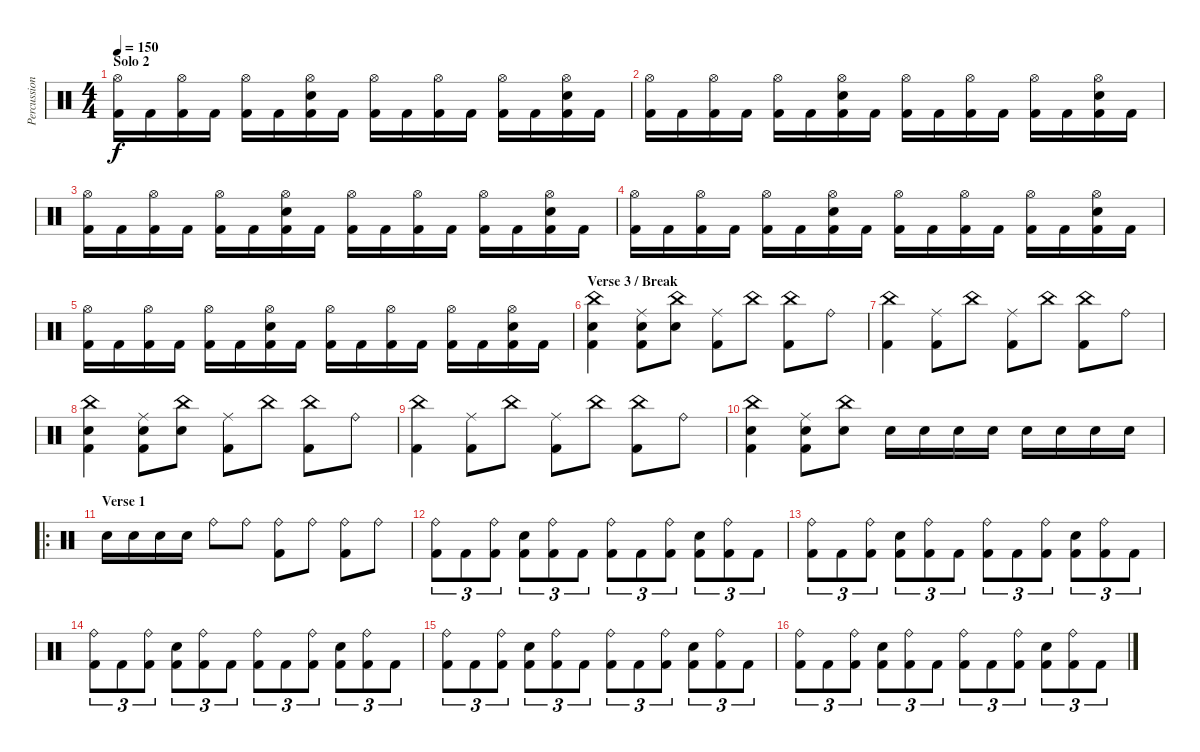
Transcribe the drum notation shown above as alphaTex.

\track ("Percussions" "Percussion") {instrument percussion}
\staff {score}
\articulation defaults
\ts (4 4)
\section ("" "Solo 2")
\tempo 150
\clef neutral
\ks c
("Hi-Hat (open)" "Kick (hit) 2").16{dy f} "Kick (hit) 2".16 ("Hi-Hat (open)" "Kick (hit) 2").16 "Kick (hit) 2".16 ("Hi-Hat (open)" "Kick (hit) 2").16 "Kick (hit) 2".16 ("Hi-Hat (open)" "Electric Snare (hit)" "Kick (hit) 2").16 "Kick (hit) 2".16 ("Hi-Hat (open)" "Kick (hit) 2").16 "Kick (hit) 2".16 ("Hi-Hat (open)" "Kick (hit) 2").16 "Kick (hit) 2".16 ("Hi-Hat (open)" "Kick (hit) 2").16 "Kick (hit) 2".16 ("Hi-Hat (open)" "Electric Snare (hit)" "Kick (hit) 2").16 "Kick (hit) 2".16 |
("Hi-Hat (open)" "Kick (hit) 2").16 "Kick (hit) 2".16 ("Hi-Hat (open)" "Kick (hit) 2").16 "Kick (hit) 2".16 ("Hi-Hat (open)" "Kick (hit) 2").16 "Kick (hit) 2".16 ("Hi-Hat (open)" "Electric Snare (hit)" "Kick (hit) 2").16 "Kick (hit) 2".16 ("Hi-Hat (open)" "Kick (hit) 2").16 "Kick (hit) 2".16 ("Hi-Hat (open)" "Kick (hit) 2").16 "Kick (hit) 2".16 ("Hi-Hat (open)" "Kick (hit) 2").16 "Kick (hit) 2".16 ("Hi-Hat (open)" "Electric Snare (hit)" "Kick (hit) 2").16 "Kick (hit) 2".16 |
("Hi-Hat (open)" "Kick (hit) 2").16 "Kick (hit) 2".16 ("Hi-Hat (open)" "Kick (hit) 2").16 "Kick (hit) 2".16 ("Hi-Hat (open)" "Kick (hit) 2").16 "Kick (hit) 2".16 ("Hi-Hat (open)" "Electric Snare (hit)" "Kick (hit) 2").16 "Kick (hit) 2".16 ("Hi-Hat (open)" "Kick (hit) 2").16 "Kick (hit) 2".16 ("Hi-Hat (open)" "Kick (hit) 2").16 "Kick (hit) 2".16 ("Hi-Hat (open)" "Kick (hit) 2").16 "Kick (hit) 2".16 ("Hi-Hat (open)" "Electric Snare (hit)" "Kick (hit) 2").16 "Kick (hit) 2".16 |
("Hi-Hat (open)" "Kick (hit) 2").16 "Kick (hit) 2".16 ("Hi-Hat (open)" "Kick (hit) 2").16 "Kick (hit) 2".16 ("Hi-Hat (open)" "Kick (hit) 2").16 "Kick (hit) 2".16 ("Hi-Hat (open)" "Electric Snare (hit)" "Kick (hit) 2").16 "Kick (hit) 2".16 ("Hi-Hat (open)" "Kick (hit) 2").16 "Kick (hit) 2".16 ("Hi-Hat (open)" "Kick (hit) 2").16 "Kick (hit) 2".16 ("Hi-Hat (open)" "Kick (hit) 2").16 "Kick (hit) 2".16 ("Hi-Hat (open)" "Electric Snare (hit)" "Kick (hit) 2").16 "Kick (hit) 2".16 |
("Hi-Hat (open)" "Kick (hit) 2").16 "Kick (hit) 2".16 ("Hi-Hat (open)" "Kick (hit) 2").16 "Kick (hit) 2".16 ("Hi-Hat (open)" "Kick (hit) 2").16 "Kick (hit) 2".16 ("Hi-Hat (open)" "Electric Snare (hit)" "Kick (hit) 2").16 "Kick (hit) 2".16 ("Hi-Hat (open)" "Kick (hit) 2").16 "Kick (hit) 2".16 ("Hi-Hat (open)" "Kick (hit) 2").16 "Kick (hit) 2".16 ("Hi-Hat (open)" "Kick (hit) 2").16 "Kick (hit) 2".16 ("Hi-Hat (open)" "Electric Snare (hit)" "Kick (hit) 2").16 "Kick (hit) 2".16 |
\section ("" "Verse 3 / Break")
("China (hit)" "Electric Snare (hit)" "Kick (hit) 2").4 ("Ride (middle)" "Electric Snare (hit)" "Kick (hit) 2").8 ("China (hit)" "Electric Snare (hit)").8 ("Ride (middle)" "Kick (hit) 2").8 "China (hit)".8 ("China (hit)" "Kick (hit) 2").8 "Ride (bell)".8 |
("China (hit)" "Kick (hit) 2").4 ("Ride (middle)" "Kick (hit) 2").8 "China (hit)".8 ("Ride (middle)" "Kick (hit) 2").8 "China (hit)".8 ("China (hit)" "Kick (hit) 2").8 "Ride (bell)".8 |
("China (hit)" "Electric Snare (hit)" "Kick (hit) 2").4 ("Ride (middle)" "Electric Snare (hit)" "Kick (hit) 2").8 ("China (hit)" "Electric Snare (hit)").8 ("Ride (middle)" "Kick (hit) 2").8 "China (hit)".8 ("China (hit)" "Kick (hit) 2").8 "Ride (bell)".8 |
("China (hit)" "Kick (hit) 2").4 ("Ride (middle)" "Kick (hit) 2").8 "China (hit)".8 ("Ride (middle)" "Kick (hit) 2").8 "China (hit)".8 ("China (hit)" "Kick (hit) 2").8 "Ride (bell)".8 |
("China (hit)" "Electric Snare (hit)" "Kick (hit) 2").4 ("Ride (middle)" "Electric Snare (hit)" "Kick (hit) 2").8 ("China (hit)" "Electric Snare (hit)").8 "Electric Snare (hit)".16 "Electric Snare (hit)".16 "Electric Snare (hit)".16 "Electric Snare (hit)".16 "Electric Snare (hit)".16 "Electric Snare (hit)".16 "Electric Snare (hit)".16 "Electric Snare (hit)".16 |
\ro
\section ("" "Verse 1")
"Electric Snare (hit)".16 "Electric Snare (hit)".16 "Electric Snare (hit)".16 "Electric Snare (hit)".16 "Ride (bell)".8 "Ride (bell)".8 ("Ride (bell)" "Kick (hit) 2").8 "Ride (bell)".8 ("Ride (bell)" "Kick (hit) 2").8 "Ride (bell)".8 |
("Ride (bell)" "Kick (hit) 2").8{tu (3 2)} "Kick (hit) 2".8{tu (3 2)} ("Ride (bell)" "Kick (hit) 2").8{tu (3 2)} ("Electric Snare (hit)" "Kick (hit) 2").8{tu (3 2)} ("Ride (bell)" "Kick (hit) 2").8{tu (3 2)} "Kick (hit) 2".8{tu (3 2)} ("Ride (bell)" "Kick (hit) 2").8{tu (3 2)} "Kick (hit) 2".8{tu (3 2)} ("Ride (bell)" "Kick (hit) 2").8{tu (3 2)} ("Electric Snare (hit)" "Kick (hit) 2").8{tu (3 2)} ("Ride (bell)" "Kick (hit) 2").8{tu (3 2)} "Kick (hit) 2".8{tu (3 2)} |
("Ride (bell)" "Kick (hit) 2").8{tu (3 2)} "Kick (hit) 2".8{tu (3 2)} ("Ride (bell)" "Kick (hit) 2").8{tu (3 2)} ("Electric Snare (hit)" "Kick (hit) 2").8{tu (3 2)} ("Ride (bell)" "Kick (hit) 2").8{tu (3 2)} "Kick (hit) 2".8{tu (3 2)} ("Ride (bell)" "Kick (hit) 2").8{tu (3 2)} "Kick (hit) 2".8{tu (3 2)} ("Ride (bell)" "Kick (hit) 2").8{tu (3 2)} ("Electric Snare (hit)" "Kick (hit) 2").8{tu (3 2)} ("Ride (bell)" "Kick (hit) 2").8{tu (3 2)} "Kick (hit) 2".8{tu (3 2)} |
("Ride (bell)" "Kick (hit) 2").8{tu (3 2)} "Kick (hit) 2".8{tu (3 2)} ("Ride (bell)" "Kick (hit) 2").8{tu (3 2)} ("Electric Snare (hit)" "Kick (hit) 2").8{tu (3 2)} ("Ride (bell)" "Kick (hit) 2").8{tu (3 2)} "Kick (hit) 2".8{tu (3 2)} ("Ride (bell)" "Kick (hit) 2").8{tu (3 2)} "Kick (hit) 2".8{tu (3 2)} ("Ride (bell)" "Kick (hit) 2").8{tu (3 2)} ("Electric Snare (hit)" "Kick (hit) 2").8{tu (3 2)} ("Ride (bell)" "Kick (hit) 2").8{tu (3 2)} "Kick (hit) 2".8{tu (3 2)} |
("Ride (bell)" "Kick (hit) 2").8{tu (3 2)} "Kick (hit) 2".8{tu (3 2)} ("Ride (bell)" "Kick (hit) 2").8{tu (3 2)} ("Electric Snare (hit)" "Kick (hit) 2").8{tu (3 2)} ("Ride (bell)" "Kick (hit) 2").8{tu (3 2)} "Kick (hit) 2".8{tu (3 2)} ("Ride (bell)" "Kick (hit) 2").8{tu (3 2)} "Kick (hit) 2".8{tu (3 2)} ("Ride (bell)" "Kick (hit) 2").8{tu (3 2)} ("Electric Snare (hit)" "Kick (hit) 2").8{tu (3 2)} ("Ride (bell)" "Kick (hit) 2").8{tu (3 2)} "Kick (hit) 2".8{tu (3 2)} |
("Ride (bell)" "Kick (hit) 2").8{tu (3 2)} "Kick (hit) 2".8{tu (3 2)} ("Ride (bell)" "Kick (hit) 2").8{tu (3 2)} ("Electric Snare (hit)" "Kick (hit) 2").8{tu (3 2)} ("Ride (bell)" "Kick (hit) 2").8{tu (3 2)} "Kick (hit) 2".8{tu (3 2)} ("Ride (bell)" "Kick (hit) 2").8{tu (3 2)} "Kick (hit) 2".8{tu (3 2)} ("Ride (bell)" "Kick (hit) 2").8{tu (3 2)} ("Electric Snare (hit)" "Kick (hit) 2").8{tu (3 2)} ("Ride (bell)" "Kick (hit) 2").8{tu (3 2)} "Kick (hit) 2".8{tu (3 2)}
